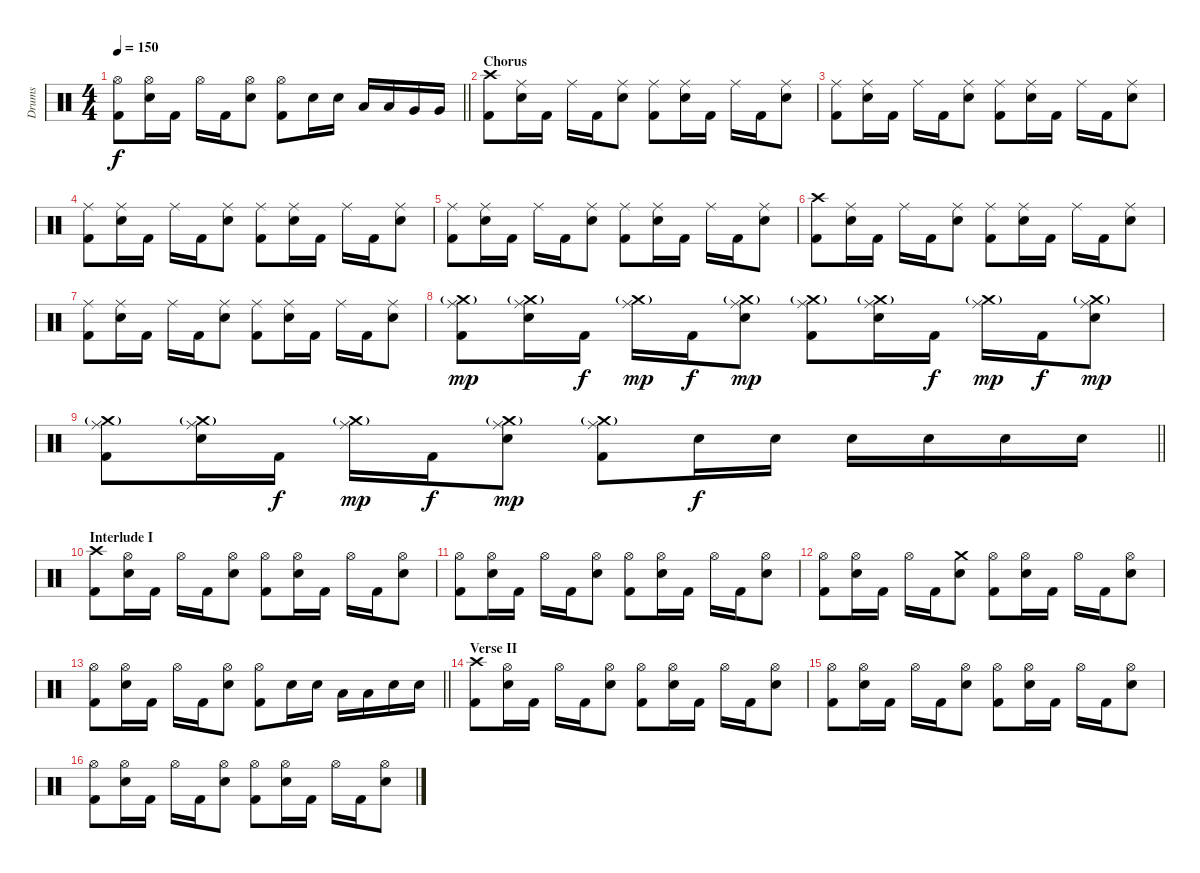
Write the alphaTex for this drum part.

\track ("Drums" "Drums") {instrument percussion}
\staff {score}
\articulation defaults
\ts (4 4)
\tempo 150
\clef neutral
\barLineRight lightlight
\ks c
("Hi-Hat (open)" "Kick (hit) 2").8{dy f} ("Hi-Hat (open)" "Electric Snare (hit)").16 "Kick (hit) 2".16 "Hi-Hat (open)".16 "Kick (hit) 2".16 ("Hi-Hat (open)" "Electric Snare (hit)").8 ("Hi-Hat (open)" "Kick (hit) 2").8 "Electric Snare (hit)".16 "Electric Snare (hit)".16 "Low Tom (hit)".16 "Low Tom (hit)".16 "Very Low Tom (hit)".16 "Very Low Tom (hit)".16 |
\section ("" "Chorus")
("Crash high (hit)" "Kick (hit) 2").8 ("Ride (middle)" "Electric Snare (hit)").16 "Kick (hit) 2".16 "Ride (middle)".16 "Kick (hit) 2".16 ("Ride (middle)" "Electric Snare (hit)").8 ("Ride (middle)" "Kick (hit) 2").8 ("Ride (middle)" "Electric Snare (hit)").16 "Kick (hit) 2".16 "Ride (middle)".16 "Kick (hit) 2".16 ("Ride (middle)" "Electric Snare (hit)").8 |
("Ride (middle)" "Kick (hit) 2").8 ("Ride (middle)" "Electric Snare (hit)").16 "Kick (hit) 2".16 "Ride (middle)".16 "Kick (hit) 2".16 ("Ride (middle)" "Electric Snare (hit)").8 ("Ride (middle)" "Kick (hit) 2").8 ("Ride (middle)" "Electric Snare (hit)").16 "Kick (hit) 2".16 "Ride (middle)".16 "Kick (hit) 2".16 ("Ride (middle)" "Electric Snare (hit)").8 |
("Ride (middle)" "Kick (hit) 2").8 ("Ride (middle)" "Electric Snare (hit)").16 "Kick (hit) 2".16 "Ride (middle)".16 "Kick (hit) 2".16 ("Ride (middle)" "Electric Snare (hit)").8 ("Ride (middle)" "Kick (hit) 2").8 ("Ride (middle)" "Electric Snare (hit)").16 "Kick (hit) 2".16 "Ride (middle)".16 "Kick (hit) 2".16 ("Ride (middle)" "Electric Snare (hit)").8 |
("Ride (middle)" "Kick (hit) 2").8 ("Ride (middle)" "Electric Snare (hit)").16 "Kick (hit) 2".16 "Ride (middle)".16 "Kick (hit) 2".16 ("Ride (middle)" "Electric Snare (hit)").8 ("Ride (middle)" "Kick (hit) 2").8 ("Ride (middle)" "Electric Snare (hit)").16 "Kick (hit) 2".16 "Ride (middle)".16 "Kick (hit) 2".16 ("Ride (middle)" "Electric Snare (hit)").8 |
("Crash high (hit)" "Kick (hit) 2").8 ("Ride (middle)" "Electric Snare (hit)").16 "Kick (hit) 2".16 "Ride (middle)".16 "Kick (hit) 2".16 ("Ride (middle)" "Electric Snare (hit)").8 ("Ride (middle)" "Kick (hit) 2").8 ("Ride (middle)" "Electric Snare (hit)").16 "Kick (hit) 2".16 "Ride (middle)".16 "Kick (hit) 2".16 ("Ride (middle)" "Electric Snare (hit)").8 |
("Ride (middle)" "Kick (hit) 2").8 ("Ride (middle)" "Electric Snare (hit)").16 "Kick (hit) 2".16 "Ride (middle)".16 "Kick (hit) 2".16 ("Ride (middle)" "Electric Snare (hit)").8 ("Ride (middle)" "Kick (hit) 2").8 ("Ride (middle)" "Electric Snare (hit)").16 "Kick (hit) 2".16 "Ride (middle)".16 "Kick (hit) 2".16 ("Ride (middle)" "Electric Snare (hit)").8 |
("Crash medium (hit)"{g} "Ride (middle)" "Kick (hit) 2").8{dy mp} ("Crash medium (hit)"{g} "Ride (middle)" "Electric Snare (hit)").16 "Kick (hit) 2".16{dy f} ("Crash medium (hit)"{g} "Ride (middle)").16{dy mp} "Kick (hit) 2".16{dy f} ("Crash medium (hit)"{g} "Ride (middle)" "Electric Snare (hit)").8{dy mp} ("Crash medium (hit)"{g} "Ride (middle)" "Kick (hit) 2").8 ("Crash medium (hit)"{g} "Ride (middle)" "Electric Snare (hit)").16 "Kick (hit) 2".16{dy f} ("Crash medium (hit)"{g} "Ride (middle)").16{dy mp} "Kick (hit) 2".16{dy f} ("Crash medium (hit)"{g} "Ride (middle)" "Electric Snare (hit)").8{dy mp} |
\barLineRight lightlight
("Crash medium (hit)"{g} "Ride (middle)" "Kick (hit) 2").8 ("Crash medium (hit)"{g} "Ride (middle)" "Electric Snare (hit)").16 "Kick (hit) 2".16{dy f} ("Crash medium (hit)"{g} "Ride (middle)").16{dy mp} "Kick (hit) 2".16{dy f} ("Crash medium (hit)"{g} "Ride (middle)" "Electric Snare (hit)").8{dy mp} ("Crash medium (hit)"{g} "Ride (middle)" "Kick (hit) 2").8 "Electric Snare (hit)".16{dy f} "Electric Snare (hit)".16 "Electric Snare (hit)".16 "Electric Snare (hit)".16 "Electric Snare (hit)".16 "Electric Snare (hit)".16 |
\section ("" "Interlude I")
("Crash high (hit)" "Kick (hit) 2").8 ("Hi-Hat (open)" "Electric Snare (hit)").16 "Kick (hit) 2".16 "Hi-Hat (open)".16 "Kick (hit) 2".16 ("Hi-Hat (open)" "Electric Snare (hit)").8 ("Hi-Hat (open)" "Kick (hit) 2").8 ("Hi-Hat (open)" "Electric Snare (hit)").16 "Kick (hit) 2".16 "Hi-Hat (open)".16 "Kick (hit) 2".16 ("Hi-Hat (open)" "Electric Snare (hit)").8 |
("Hi-Hat (open)" "Kick (hit) 2").8 ("Hi-Hat (open)" "Electric Snare (hit)").16 "Kick (hit) 2".16 "Hi-Hat (open)".16 "Kick (hit) 2".16 ("Hi-Hat (open)" "Electric Snare (hit)").8 ("Hi-Hat (open)" "Kick (hit) 2").8 ("Hi-Hat (open)" "Electric Snare (hit)").16 "Kick (hit) 2".16 "Hi-Hat (open)".16 "Kick (hit) 2".16 ("Hi-Hat (open)" "Electric Snare (hit)").8 |
("Hi-Hat (open)" "Kick (hit) 2").8 ("Hi-Hat (open)" "Electric Snare (hit)").16 "Kick (hit) 2".16 "Hi-Hat (open)".16 "Kick (hit) 2".16 ("Crash medium (hit)" "Electric Snare (hit)").8 ("Hi-Hat (open)" "Kick (hit) 2").8 ("Hi-Hat (open)" "Electric Snare (hit)").16 "Kick (hit) 2".16 "Hi-Hat (open)".16 "Kick (hit) 2".16 ("Hi-Hat (open)" "Electric Snare (hit)").8 |
\barLineRight lightlight
("Hi-Hat (open)" "Kick (hit) 2").8 ("Hi-Hat (open)" "Electric Snare (hit)").16 "Kick (hit) 2".16 "Hi-Hat (open)".16 "Kick (hit) 2".16 ("Hi-Hat (open)" "Electric Snare (hit)").8 ("Hi-Hat (open)" "Kick (hit) 2").8 "Electric Snare (hit)".16 "Electric Snare (hit)".16 "Low Tom (hit)".16 "Low Tom (hit)".16 "Electric Snare (hit)".16 "Electric Snare (hit)".16 |
\section ("" "Verse II")
("Crash high (hit)" "Kick (hit) 2").8 ("Hi-Hat (open)" "Electric Snare (hit)").16 "Kick (hit) 2".16 "Hi-Hat (open)".16 "Kick (hit) 2".16 ("Hi-Hat (open)" "Electric Snare (hit)").8 ("Hi-Hat (open)" "Kick (hit) 2").8 ("Hi-Hat (open)" "Electric Snare (hit)").16 "Kick (hit) 2".16 "Hi-Hat (open)".16 "Kick (hit) 2".16 ("Hi-Hat (open)" "Electric Snare (hit)").8 |
("Hi-Hat (open)" "Kick (hit) 2").8 ("Hi-Hat (open)" "Electric Snare (hit)").16 "Kick (hit) 2".16 "Hi-Hat (open)".16 "Kick (hit) 2".16 ("Hi-Hat (open)" "Electric Snare (hit)").8 ("Hi-Hat (open)" "Kick (hit) 2").8 ("Hi-Hat (open)" "Electric Snare (hit)").16 "Kick (hit) 2".16 "Hi-Hat (open)".16 "Kick (hit) 2".16 ("Hi-Hat (open)" "Electric Snare (hit)").8 |
("Hi-Hat (open)" "Kick (hit) 2").8 ("Hi-Hat (open)" "Electric Snare (hit)").16 "Kick (hit) 2".16 "Hi-Hat (open)".16 "Kick (hit) 2".16 ("Hi-Hat (open)" "Electric Snare (hit)").8 ("Hi-Hat (open)" "Kick (hit) 2").8 ("Hi-Hat (open)" "Electric Snare (hit)").16 "Kick (hit) 2".16 "Hi-Hat (open)".16 "Kick (hit) 2".16 ("Hi-Hat (open)" "Electric Snare (hit)").8
